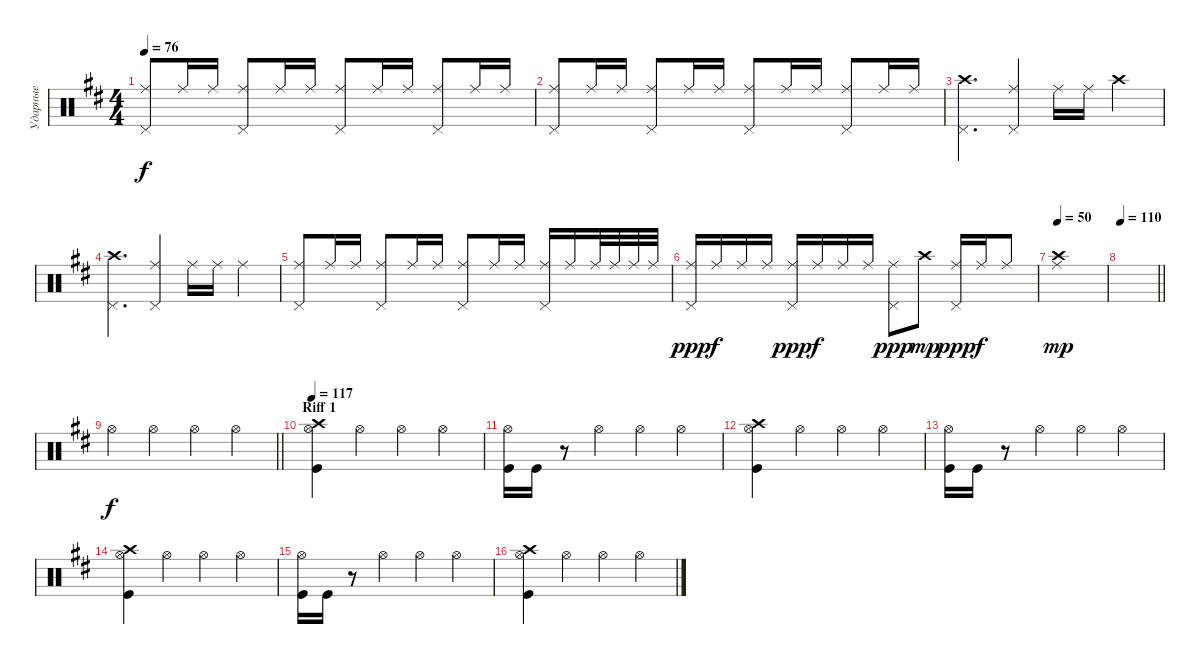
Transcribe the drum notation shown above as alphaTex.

\track ("Ударные" "Ударные") {instrument percussion}
\staff {score}
\articulation defaults
\ts (4 4)
\tempo 76
\clef neutral
\ks d
("Ride (middle)" "Pedal Hi-Hat (hit)").8{dy f} "Ride (middle)".16 "Ride (middle)".16 ("Pedal Hi-Hat (hit)" "Ride (middle)").8 "Ride (middle)".16 "Ride (middle)".16 ("Ride (middle)" "Pedal Hi-Hat (hit)").8 "Ride (middle)".16 "Ride (middle)".16 ("Ride (middle)" "Pedal Hi-Hat (hit)").8 "Ride (middle)".16 "Ride (middle)".16 |
("Ride (middle)" "Pedal Hi-Hat (hit)").8 "Ride (middle)".16 "Ride (middle)".16 ("Pedal Hi-Hat (hit)" "Ride (middle)").8 "Ride (middle)".16 "Ride (middle)".16 ("Ride (middle)" "Pedal Hi-Hat (hit)").8 "Ride (middle)".16 "Ride (middle)".16 ("Ride (middle)" "Pedal Hi-Hat (hit)").8 "Ride (middle)".16 "Ride (middle)".16 |
("Pedal Hi-Hat (hit)" "Crash high (hit)").4{d} ("Ride (middle)" "Pedal Hi-Hat (hit)").4 "Ride (middle)".16 "Ride (middle)".16 "Crash high (hit)".4 |
("Crash high (hit)" "Pedal Hi-Hat (hit)").4{d} ("Ride (middle)" "Pedal Hi-Hat (hit)").4 "Ride (middle)".16 "Ride (middle)".16 "Ride (middle)".4 |
("Ride (middle)" "Pedal Hi-Hat (hit)").8 "Ride (middle)".16 "Ride (middle)".16 ("Ride (middle)" "Pedal Hi-Hat (hit)").8 "Ride (middle)".16 "Ride (middle)".16 ("Ride (middle)" "Pedal Hi-Hat (hit)").8 "Ride (middle)".16 "Ride (middle)".16 ("Ride (middle)" "Pedal Hi-Hat (hit)").16 "Ride (middle)".16 "Ride (middle)".32 "Ride (middle)".32 "Ride (middle)".32 "Ride (middle)".32 |
("Ride (middle)" "Pedal Hi-Hat (hit)").16{dy ppp} "Ride (middle)".16{dy f} "Ride (middle)".16 "Ride (middle)".16 ("Ride (middle)" "Pedal Hi-Hat (hit)").16{dy ppp} "Ride (middle)".16{dy f} "Ride (middle)".16 "Ride (middle)".16 ("Ride (middle)" "Pedal Hi-Hat (hit)").8{dy ppp} "Crash high (hit)".8{dy mp} ("Ride (middle)" "Pedal Hi-Hat (hit)").16{dy ppp} "Ride (middle)".16{dy f} "Ride (middle)".8 |
\tempo 50
("Ride (middle)" "Crash high (hit)").1{dy mp} |
\tempo 110
\barLineRight lightlight
|
\barLineRight lightlight "Hi-Hat (open)".4{dy f} "Hi-Hat (open)".4 "Hi-Hat (open)".4 "Hi-Hat (open)".4
|
\section ("" "Riff 1")
\tempo 117
("Kick (hit)" "Crash high (hit)" "Hi-Hat (open)").4 "Hi-Hat (open)".4 "Hi-Hat (open)".4 "Hi-Hat (open)".4 |
("Hi-Hat (open)" "Kick (hit)").16 "Kick (hit)".16 r.8 "Hi-Hat (open)".4 "Hi-Hat (open)".4 "Hi-Hat (open)".4 |
("Kick (hit)" "Crash high (hit)" "Hi-Hat (open)").4 "Hi-Hat (open)".4 "Hi-Hat (open)".4 "Hi-Hat (open)".4 |
("Hi-Hat (open)" "Kick (hit)").16 "Kick (hit)".16 r.8 "Hi-Hat (open)".4 "Hi-Hat (open)".4 "Hi-Hat (open)".4 |
("Kick (hit)" "Crash high (hit)" "Hi-Hat (open)").4 "Hi-Hat (open)".4 "Hi-Hat (open)".4 "Hi-Hat (open)".4 |
("Hi-Hat (open)" "Kick (hit)").16 "Kick (hit)".16 r.8 "Hi-Hat (open)".4 "Hi-Hat (open)".4 "Hi-Hat (open)".4 |
("Kick (hit)" "Crash high (hit)" "Hi-Hat (open)").4 "Hi-Hat (open)".4 "Hi-Hat (open)".4 "Hi-Hat (open)".4
